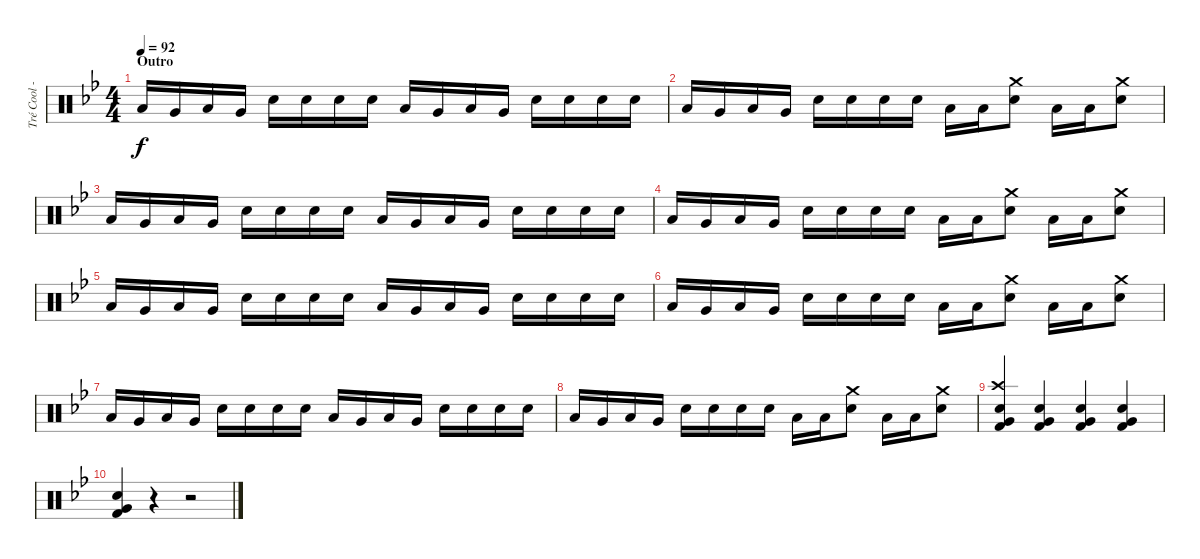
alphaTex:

\track ("Tré Cool - Drums" "Tré Cool -") {instrument percussion}
\staff {score}
\articulation defaults
\ts (4 4)
\section ("" "Outro")
\tempo 92
\clef neutral
\ks gminor "Low Floor Tom (hit)".16{dy f} "Very Low Tom (hit)".16 "Low Floor Tom (hit)".16 "Very Low Tom (hit)".16 "Electric Snare (hit)".16 "Electric Snare (hit)".16 "Electric Snare (hit)".16 "Electric Snare (hit)".16 "Low Floor Tom (hit)".16 "Very Low Tom (hit)".16 "Low Floor Tom (hit)".16 "Very Low Tom (hit)".16 "Electric Snare (hit)".16 "Electric Snare (hit)".16 "Electric Snare (hit)".16 "Electric Snare (hit)".16
|
"Low Floor Tom (hit)".16 "Very Low Tom (hit)".16 "Low Floor Tom (hit)".16 "Very Low Tom (hit)".16 "Electric Snare (hit)".16 "Electric Snare (hit)".16 "Electric Snare (hit)".16 "Electric Snare (hit)".16 "Low Floor Tom (hit)".16 "Low Floor Tom (hit)".16 ("Crash medium (hit)" "Electric Snare (hit)").8 "Low Floor Tom (hit)".16 "Low Floor Tom (hit)".16 ("Crash medium (hit)" "Electric Snare (hit)").8 |
"Low Floor Tom (hit)".16 "Very Low Tom (hit)".16 "Low Floor Tom (hit)".16 "Very Low Tom (hit)".16 "Electric Snare (hit)".16 "Electric Snare (hit)".16 "Electric Snare (hit)".16 "Electric Snare (hit)".16 "Low Floor Tom (hit)".16 "Very Low Tom (hit)".16 "Low Floor Tom (hit)".16 "Very Low Tom (hit)".16 "Electric Snare (hit)".16 "Electric Snare (hit)".16 "Electric Snare (hit)".16 "Electric Snare (hit)".16 |
"Low Floor Tom (hit)".16 "Very Low Tom (hit)".16 "Low Floor Tom (hit)".16 "Very Low Tom (hit)".16 "Electric Snare (hit)".16 "Electric Snare (hit)".16 "Electric Snare (hit)".16 "Electric Snare (hit)".16 "Low Floor Tom (hit)".16 "Low Floor Tom (hit)".16 ("Crash medium (hit)" "Electric Snare (hit)").8 "Low Floor Tom (hit)".16 "Low Floor Tom (hit)".16 ("Crash medium (hit)" "Electric Snare (hit)").8 |
"Low Floor Tom (hit)".16 "Very Low Tom (hit)".16 "Low Floor Tom (hit)".16 "Very Low Tom (hit)".16 "Electric Snare (hit)".16 "Electric Snare (hit)".16 "Electric Snare (hit)".16 "Electric Snare (hit)".16 "Low Floor Tom (hit)".16 "Very Low Tom (hit)".16 "Low Floor Tom (hit)".16 "Very Low Tom (hit)".16 "Electric Snare (hit)".16 "Electric Snare (hit)".16 "Electric Snare (hit)".16 "Electric Snare (hit)".16 |
"Low Floor Tom (hit)".16 "Very Low Tom (hit)".16 "Low Floor Tom (hit)".16 "Very Low Tom (hit)".16 "Electric Snare (hit)".16 "Electric Snare (hit)".16 "Electric Snare (hit)".16 "Electric Snare (hit)".16 "Low Floor Tom (hit)".16 "Low Floor Tom (hit)".16 ("Crash medium (hit)" "Electric Snare (hit)").8 "Low Floor Tom (hit)".16 "Low Floor Tom (hit)".16 ("Crash medium (hit)" "Electric Snare (hit)").8 |
"Low Floor Tom (hit)".16 "Very Low Tom (hit)".16 "Low Floor Tom (hit)".16 "Very Low Tom (hit)".16 "Electric Snare (hit)".16 "Electric Snare (hit)".16 "Electric Snare (hit)".16 "Electric Snare (hit)".16 "Low Floor Tom (hit)".16 "Very Low Tom (hit)".16 "Low Floor Tom (hit)".16 "Very Low Tom (hit)".16 "Electric Snare (hit)".16 "Electric Snare (hit)".16 "Electric Snare (hit)".16 "Electric Snare (hit)".16 |
"Low Floor Tom (hit)".16 "Very Low Tom (hit)".16 "Low Floor Tom (hit)".16 "Very Low Tom (hit)".16 "Electric Snare (hit)".16 "Electric Snare (hit)".16 "Electric Snare (hit)".16 "Electric Snare (hit)".16 "Low Floor Tom (hit)".16 "Low Floor Tom (hit)".16 ("Crash medium (hit)" "Electric Snare (hit)").8 "Low Floor Tom (hit)".16 "Low Floor Tom (hit)".16 ("Crash medium (hit)" "Electric Snare (hit)").8 |
("Crash high (hit)" "Very Low Tom (hit)" "Electric Snare (hit)" "Kick (hit) 2").4 ("Very Low Tom (hit)" "Snare (hit) 2" "Kick (hit) 2").4 ("Very Low Tom (hit)" "Electric Snare (hit)" "Kick (hit) 2").4 ("Very Low Tom (hit)" "Snare (hit) 2" "Kick (hit) 2").4 |
("Very Low Tom (hit)" "Electric Snare (hit)" "Kick (hit) 2").4 r.4 r.2
